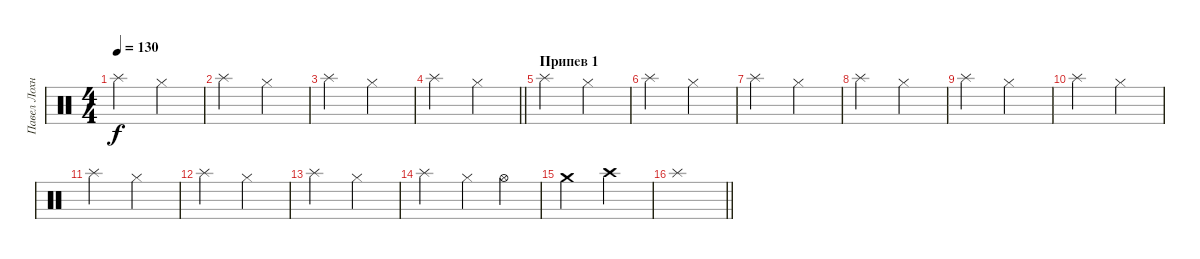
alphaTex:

\track ("Павел Лохнин" "Павел Лохн") {instrument percussion}
\staff {score}
\articulation defaults
\ts (4 4)
\tempo 130
\clef neutral
\ks c "Splash (hit)".2{dy f} "Hi-Hat (closed)".2
|
"Splash (hit)".2 "Hi-Hat (closed)".2 |
"Splash (hit)".2 "Hi-Hat (closed)".2 |
\barLineRight lightlight "Splash (hit)".2 "Hi-Hat (closed)".2
|
\section ("" "Припев 1")
"Splash (hit)".2 "Hi-Hat (closed)".2 |
"Splash (hit)".2 "Hi-Hat (closed)".2 |
"Splash (hit)".2 "Hi-Hat (closed)".2 |
"Splash (hit)".2 "Hi-Hat (closed)".2 |
"Splash (hit)".2 "Hi-Hat (closed)".2 |
"Splash (hit)".2 "Hi-Hat (closed)".2 |
"Splash (hit)".2 "Hi-Hat (closed)".2 |
"Splash (hit)".2 "Hi-Hat (closed)".2 |
"Splash (hit)".2 "Hi-Hat (closed)".2 |
"Splash (hit)".2 "Hi-Hat (closed)".4 "Hi-Hat (open)".4 |
"Crash medium (hit)".2 "Crash high (hit)".2 |
\barLineRight lightlight "Splash (hit)".1
